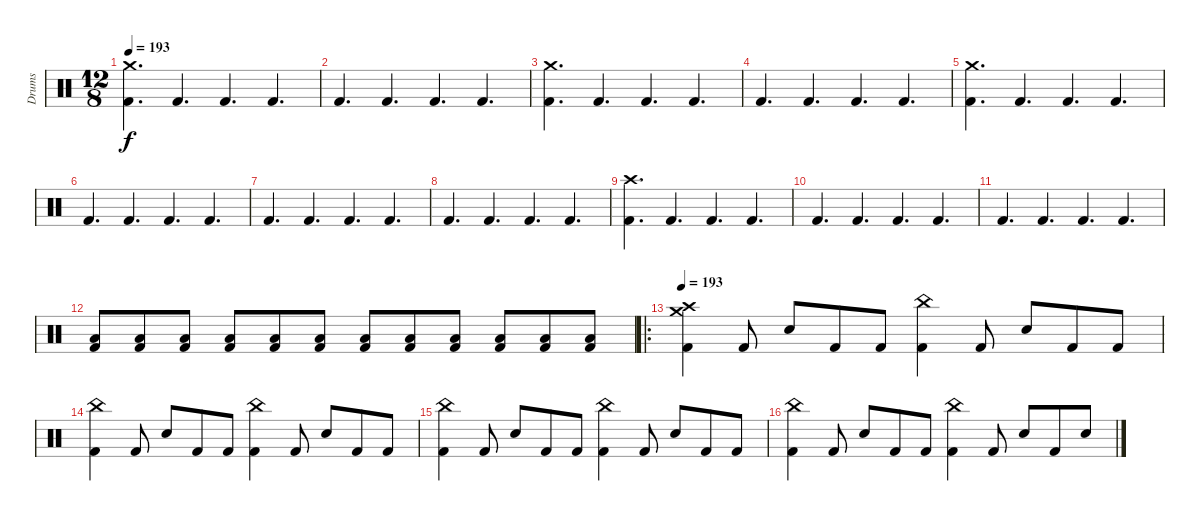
\track ("Drums" "Drums") {instrument percussion}
\staff {score}
\articulation defaults
\ts (12 8)
\tempo 193
\clef neutral
\ks c
("Crash medium (hit)" "Kick (hit) 2").4{d dy f} "Kick (hit) 2".4{d} "Kick (hit) 2".4{d} "Kick (hit) 2".4{d} |
"Kick (hit) 2".4{d} "Kick (hit) 2".4{d} "Kick (hit) 2".4{d} "Kick (hit) 2".4{d} |
("Crash medium (hit)" "Kick (hit) 2").4{d} "Kick (hit) 2".4{d} "Kick (hit) 2".4{d} "Kick (hit) 2".4{d} |
"Kick (hit) 2".4{d} "Kick (hit) 2".4{d} "Kick (hit) 2".4{d} "Kick (hit) 2".4{d} |
("Crash medium (hit)" "Kick (hit) 2").4{d} "Kick (hit) 2".4{d} "Kick (hit) 2".4{d} "Kick (hit) 2".4{d} |
"Kick (hit) 2".4{d} "Kick (hit) 2".4{d} "Kick (hit) 2".4{d} "Kick (hit) 2".4{d} |
"Kick (hit) 2".4{d} "Kick (hit) 2".4{d} "Kick (hit) 2".4{d} "Kick (hit) 2".4{d} |
"Kick (hit) 2".4{d} "Kick (hit) 2".4{d} "Kick (hit) 2".4{d} "Kick (hit) 2".4{d} |
("Crash high (hit)" "Kick (hit) 2").4{d} "Kick (hit) 2".4{d} "Kick (hit) 2".4{d} "Kick (hit) 2".4{d} |
"Kick (hit) 2".4{d} "Kick (hit) 2".4{d} "Kick (hit) 2".4{d} "Kick (hit) 2".4{d} |
"Kick (hit) 2".4{d} "Kick (hit) 2".4{d} "Kick (hit) 2".4{d} "Kick (hit) 2".4{d} |
("Low Tom (hit)" "Kick (hit) 2").8 ("Low Floor Tom (hit)" "Kick (hit) 2").8 ("Low Floor Tom (hit)" "Kick (hit) 2").8 ("Low Tom (hit)" "Kick (hit) 2").8 ("Low Floor Tom (hit)" "Kick (hit) 2").8 ("Low Floor Tom (hit)" "Kick (hit) 2").8 ("Low Tom (hit)" "Kick (hit) 2").8 ("Low Floor Tom (hit)" "Kick (hit) 2").8 ("Low Floor Tom (hit)" "Kick (hit) 2").8 ("Low Tom (hit)" "Kick (hit) 2").8 ("Low Floor Tom (hit)" "Kick (hit) 2").8 ("Low Floor Tom (hit)" "Kick (hit) 2").8 |
\ro
\tempo 193
("Crash medium (hit)" "Crash high (hit)" "Kick (hit) 2").4 "Kick (hit) 2".8 "Electric Snare (hit)".8 "Kick (hit) 2".8 "Kick (hit) 2".8 ("China (hit)" "Kick (hit) 2").4 "Kick (hit) 2".8 "Electric Snare (hit)".8 "Kick (hit) 2".8 "Kick (hit) 2".8 |
("China (hit)" "Kick (hit) 2").4 "Kick (hit) 2".8 "Electric Snare (hit)".8 "Kick (hit) 2".8 "Kick (hit) 2".8 ("China (hit)" "Kick (hit) 2").4 "Kick (hit) 2".8 "Electric Snare (hit)".8 "Kick (hit) 2".8 "Kick (hit) 2".8 |
("China (hit)" "Kick (hit) 2").4 "Kick (hit) 2".8 "Electric Snare (hit)".8 "Kick (hit) 2".8 "Kick (hit) 2".8 ("China (hit)" "Kick (hit) 2").4 "Kick (hit) 2".8 "Electric Snare (hit)".8 "Kick (hit) 2".8 "Kick (hit) 2".8 |
("China (hit)" "Kick (hit) 2").4 "Kick (hit) 2".8 "Electric Snare (hit)".8 "Kick (hit) 2".8 "Kick (hit) 2".8 ("China (hit)" "Kick (hit) 2").4 "Kick (hit) 2".8 "Electric Snare (hit)".8 "Kick (hit) 2".8 "Electric Snare (hit)".8
